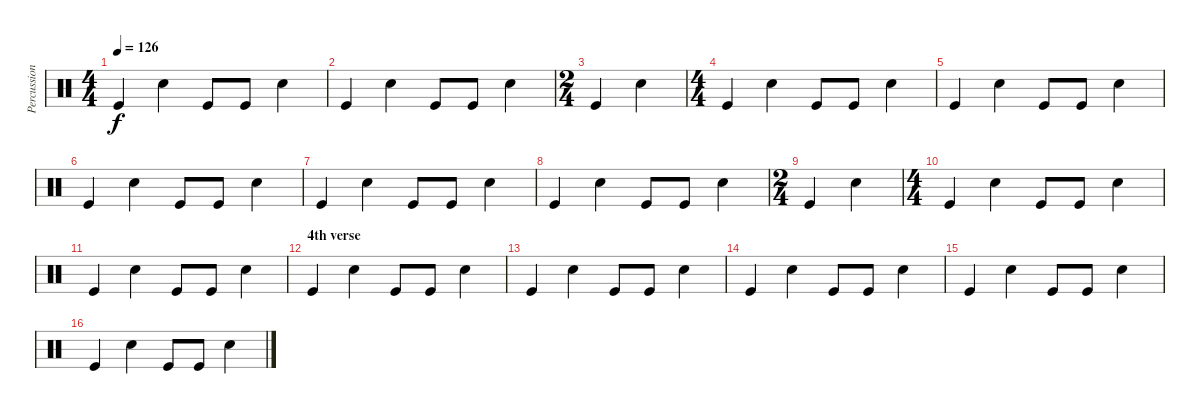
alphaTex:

\track ("Percussion" "Percussion") {instrument percussion}
\staff {score}
\articulation defaults
\ts (4 4)
\tempo 126
\clef neutral
\ks c "Kick (hit)".4{dy f} "Snare (hit) 2".4 "Kick (hit)".8 "Kick (hit)".8 "Snare (hit) 2".4
|
"Kick (hit)".4 "Snare (hit) 2".4 "Kick (hit)".8 "Kick (hit)".8 "Snare (hit) 2".4 |
\ts (2 4)
"Kick (hit)".4 "Snare (hit) 2".4 |
\ts (4 4)
"Kick (hit)".4 "Snare (hit) 2".4 "Kick (hit)".8 "Kick (hit)".8 "Snare (hit) 2".4 |
"Kick (hit)".4 "Snare (hit) 2".4 "Kick (hit)".8 "Kick (hit)".8 "Snare (hit) 2".4 |
"Kick (hit)".4 "Snare (hit) 2".4 "Kick (hit)".8 "Kick (hit)".8 "Snare (hit) 2".4 |
"Kick (hit)".4 "Snare (hit) 2".4 "Kick (hit)".8 "Kick (hit)".8 "Snare (hit) 2".4 |
"Kick (hit)".4 "Snare (hit) 2".4 "Kick (hit)".8 "Kick (hit)".8 "Snare (hit) 2".4 |
\ts (2 4)
"Kick (hit)".4 "Snare (hit) 2".4 |
\ts (4 4)
"Kick (hit)".4 "Snare (hit) 2".4 "Kick (hit)".8 "Kick (hit)".8 "Snare (hit) 2".4 |
"Kick (hit)".4 "Snare (hit) 2".4 "Kick (hit)".8 "Kick (hit)".8 "Snare (hit) 2".4 |
\section ("" "4th verse")
"Kick (hit)".4 "Snare (hit) 2".4 "Kick (hit)".8 "Kick (hit)".8 "Snare (hit) 2".4 |
"Kick (hit)".4 "Snare (hit) 2".4 "Kick (hit)".8 "Kick (hit)".8 "Snare (hit) 2".4 |
"Kick (hit)".4 "Snare (hit) 2".4 "Kick (hit)".8 "Kick (hit)".8 "Snare (hit) 2".4 |
"Kick (hit)".4 "Snare (hit) 2".4 "Kick (hit)".8 "Kick (hit)".8 "Snare (hit) 2".4 |
"Kick (hit)".4 "Snare (hit) 2".4 "Kick (hit)".8 "Kick (hit)".8 "Snare (hit) 2".4
